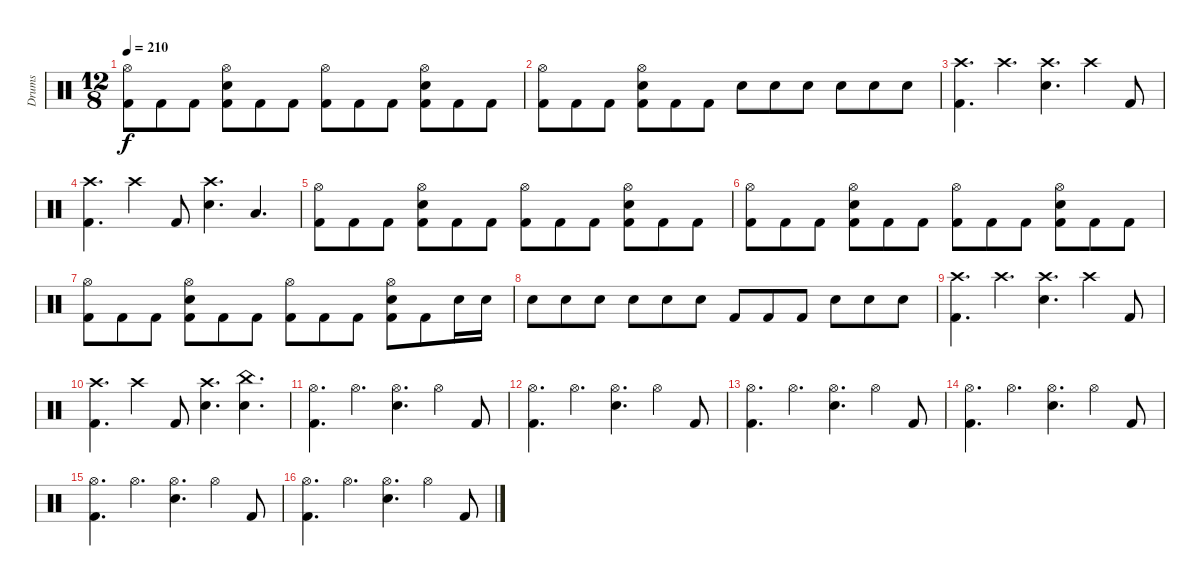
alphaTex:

\track ("Drums" "Drums") {instrument percussion}
\staff {score}
\articulation defaults
\ts (12 8)
\tempo 210
\clef neutral
\ks c
("Hi-Hat (open)" "Kick (hit) 2").8{dy f} "Kick (hit) 2".8 "Kick (hit) 2".8 ("Hi-Hat (open)" "Electric Snare (hit)" "Kick (hit) 2").8 "Kick (hit) 2".8 "Kick (hit) 2".8 ("Hi-Hat (open)" "Kick (hit) 2").8 "Kick (hit) 2".8 "Kick (hit) 2".8 ("Hi-Hat (open)" "Electric Snare (hit)" "Kick (hit) 2").8 "Kick (hit) 2".8 "Kick (hit) 2".8 |
("Hi-Hat (open)" "Kick (hit) 2").8 "Kick (hit) 2".8 "Kick (hit) 2".8 ("Hi-Hat (open)" "Electric Snare (hit)" "Kick (hit) 2").8 "Kick (hit) 2".8 "Kick (hit) 2".8 "Electric Snare (hit)".8 "Electric Snare (hit)".8 "Electric Snare (hit)".8 "Electric Snare (hit)".8 "Electric Snare (hit)".8 "Electric Snare (hit)".8 |
("Crash high (hit)" "Kick (hit) 2").4{d} "Crash high (hit)".4{d} ("Crash high (hit)" "Electric Snare (hit)").4{d} "Crash high (hit)".4 "Kick (hit) 2".8 |
("Crash high (hit)" "Kick (hit) 2").4{d} "Crash high (hit)".4 "Kick (hit) 2".8 ("Crash high (hit)" "Electric Snare (hit)").4{d} "Low Tom (hit)".4{d} |
("Hi-Hat (open)" "Kick (hit) 2").8 "Kick (hit) 2".8 "Kick (hit) 2".8 ("Hi-Hat (open)" "Electric Snare (hit)" "Kick (hit) 2").8 "Kick (hit) 2".8 "Kick (hit) 2".8 ("Hi-Hat (open)" "Kick (hit) 2").8 "Kick (hit) 2".8 "Kick (hit) 2".8 ("Hi-Hat (open)" "Electric Snare (hit)" "Kick (hit) 2").8 "Kick (hit) 2".8 "Kick (hit) 2".8 |
("Hi-Hat (open)" "Kick (hit) 2").8 "Kick (hit) 2".8 "Kick (hit) 2".8 ("Hi-Hat (open)" "Electric Snare (hit)" "Kick (hit) 2").8 "Kick (hit) 2".8 "Kick (hit) 2".8 ("Hi-Hat (open)" "Kick (hit) 2").8 "Kick (hit) 2".8 "Kick (hit) 2".8 ("Hi-Hat (open)" "Electric Snare (hit)" "Kick (hit) 2").8 "Kick (hit) 2".8 "Kick (hit) 2".8 |
("Hi-Hat (open)" "Kick (hit) 2").8 "Kick (hit) 2".8 "Kick (hit) 2".8 ("Hi-Hat (open)" "Electric Snare (hit)" "Kick (hit) 2").8 "Kick (hit) 2".8 "Kick (hit) 2".8 ("Hi-Hat (open)" "Kick (hit) 2").8 "Kick (hit) 2".8 "Kick (hit) 2".8 ("Hi-Hat (open)" "Electric Snare (hit)" "Kick (hit) 2").8 "Kick (hit) 2".8 "Electric Snare (hit)".16 "Electric Snare (hit)".16 |
"Electric Snare (hit)".8 "Electric Snare (hit)".8 "Electric Snare (hit)".8 "Electric Snare (hit)".8 "Electric Snare (hit)".8 "Electric Snare (hit)".8 "Kick (hit) 2".8 "Kick (hit) 2".8 "Kick (hit) 2".8 "Electric Snare (hit)".8 "Electric Snare (hit)".8 "Electric Snare (hit)".8 |
("Crash high (hit)" "Kick (hit) 2").4{d} "Crash high (hit)".4{d} ("Crash high (hit)" "Electric Snare (hit)").4{d} "Crash high (hit)".4 "Kick (hit) 2".8 |
("Crash high (hit)" "Kick (hit) 2").4{d} "Crash high (hit)".4 "Kick (hit) 2".8 ("Crash high (hit)" "Electric Snare (hit)").4{d} ("China (hit)" "Electric Snare (hit)").4{d} |
("Hi-Hat (open)" "Kick (hit) 2").4{d} "Hi-Hat (open)".4{d} ("Hi-Hat (open)" "Electric Snare (hit)").4{d} "Hi-Hat (open)".4 "Kick (hit) 2".8 |
("Hi-Hat (open)" "Kick (hit) 2").4{d} "Hi-Hat (open)".4{d} ("Hi-Hat (open)" "Electric Snare (hit)").4{d} "Hi-Hat (open)".4 "Kick (hit) 2".8 |
("Hi-Hat (open)" "Kick (hit) 2").4{d} "Hi-Hat (open)".4{d} ("Hi-Hat (open)" "Electric Snare (hit)").4{d} "Hi-Hat (open)".4 "Kick (hit) 2".8 |
("Hi-Hat (open)" "Kick (hit) 2").4{d} "Hi-Hat (open)".4{d} ("Hi-Hat (open)" "Electric Snare (hit)").4{d} "Hi-Hat (open)".4 "Kick (hit) 2".8 |
("Hi-Hat (open)" "Kick (hit) 2").4{d} "Hi-Hat (open)".4{d} ("Hi-Hat (open)" "Electric Snare (hit)").4{d} "Hi-Hat (open)".4 "Kick (hit) 2".8 |
("Hi-Hat (open)" "Kick (hit) 2").4{d} "Hi-Hat (open)".4{d} ("Hi-Hat (open)" "Electric Snare (hit)").4{d} "Hi-Hat (open)".4 "Kick (hit) 2".8
